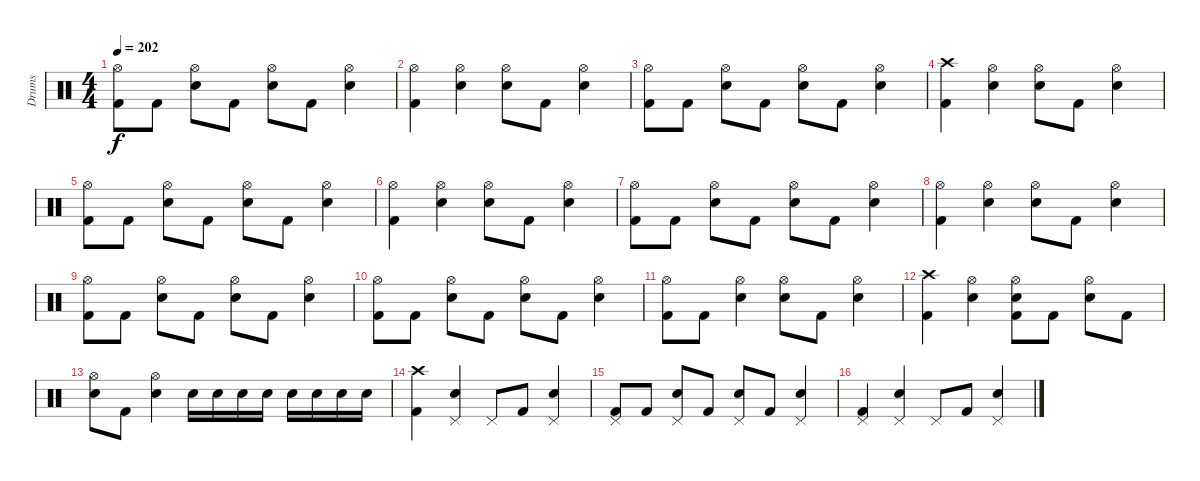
\track ("Drums" "Drums") {instrument percussion}
\staff {score}
\articulation defaults
\ts (4 4)
\tempo 202
\clef neutral
\ks c
("Hi-Hat (open)" "Kick (hit) 2").8{dy f} "Kick (hit) 2".8 ("Hi-Hat (open)" "Electric Snare (hit)").8 "Kick (hit) 2".8 ("Hi-Hat (open)" "Electric Snare (hit)").8 "Kick (hit) 2".8 ("Hi-Hat (open)" "Electric Snare (hit)").4 |
("Hi-Hat (open)" "Kick (hit) 2").4 ("Hi-Hat (open)" "Electric Snare (hit)").4 ("Hi-Hat (open)" "Electric Snare (hit)").8 "Kick (hit) 2".8 ("Hi-Hat (open)" "Electric Snare (hit)").4 |
("Hi-Hat (open)" "Kick (hit) 2").8 "Kick (hit) 2".8 ("Hi-Hat (open)" "Electric Snare (hit)").8 "Kick (hit) 2".8 ("Hi-Hat (open)" "Electric Snare (hit)").8 "Kick (hit) 2".8 ("Hi-Hat (open)" "Electric Snare (hit)").4 |
("Crash high (hit)" "Kick (hit) 2").4 ("Hi-Hat (open)" "Electric Snare (hit)").4 ("Hi-Hat (open)" "Electric Snare (hit)").8 "Kick (hit) 2".8 ("Hi-Hat (open)" "Electric Snare (hit)").4 |
("Hi-Hat (open)" "Kick (hit) 2").8 "Kick (hit) 2".8 ("Hi-Hat (open)" "Electric Snare (hit)").8 "Kick (hit) 2".8 ("Hi-Hat (open)" "Electric Snare (hit)").8 "Kick (hit) 2".8 ("Hi-Hat (open)" "Electric Snare (hit)").4 |
("Hi-Hat (open)" "Kick (hit) 2").4 ("Hi-Hat (open)" "Electric Snare (hit)").4 ("Hi-Hat (open)" "Electric Snare (hit)").8 "Kick (hit) 2".8 ("Hi-Hat (open)" "Electric Snare (hit)").4 |
("Hi-Hat (open)" "Kick (hit) 2").8 "Kick (hit) 2".8 ("Hi-Hat (open)" "Electric Snare (hit)").8 "Kick (hit) 2".8 ("Hi-Hat (open)" "Electric Snare (hit)").8 "Kick (hit) 2".8 ("Hi-Hat (open)" "Electric Snare (hit)").4 |
("Hi-Hat (open)" "Kick (hit) 2").4 ("Hi-Hat (open)" "Electric Snare (hit)").4 ("Hi-Hat (open)" "Electric Snare (hit)").8 "Kick (hit) 2".8 ("Hi-Hat (open)" "Electric Snare (hit)").4 |
("Hi-Hat (open)" "Kick (hit) 2").8 "Kick (hit) 2".8 ("Hi-Hat (open)" "Electric Snare (hit)").8 "Kick (hit) 2".8 ("Hi-Hat (open)" "Electric Snare (hit)").8 "Kick (hit) 2".8 ("Hi-Hat (open)" "Electric Snare (hit)").4 |
("Hi-Hat (open)" "Kick (hit) 2").8 "Kick (hit) 2".8 ("Hi-Hat (open)" "Electric Snare (hit)").8 "Kick (hit) 2".8 ("Hi-Hat (open)" "Electric Snare (hit)").8 "Kick (hit) 2".8 ("Hi-Hat (open)" "Electric Snare (hit)").4 |
("Hi-Hat (open)" "Kick (hit) 2").8 "Kick (hit) 2".8 ("Hi-Hat (open)" "Electric Snare (hit)").4 ("Hi-Hat (open)" "Electric Snare (hit)").8 "Kick (hit) 2".8 ("Hi-Hat (open)" "Electric Snare (hit)").4 |
("Crash high (hit)" "Kick (hit) 2").4 ("Hi-Hat (open)" "Electric Snare (hit)").4 ("Hi-Hat (open)" "Electric Snare (hit)" "Kick (hit) 2").8 "Kick (hit) 2".8 ("Hi-Hat (open)" "Electric Snare (hit)").8 "Kick (hit) 2".8 |
("Hi-Hat (open)" "Electric Snare (hit)").8 "Kick (hit) 2".8 ("Hi-Hat (open)" "Electric Snare (hit)").4 "Electric Snare (hit)".16 "Electric Snare (hit)".16 "Electric Snare (hit)".16 "Electric Snare (hit)".16 "Electric Snare (hit)".16 "Electric Snare (hit)".16 "Electric Snare (hit)".16 "Electric Snare (hit)".16 |
("Crash high (hit)" "Kick (hit) 2").4 ("Pedal Hi-Hat (hit)" "Electric Snare (hit)").4 "Pedal Hi-Hat (hit)".8 "Kick (hit) 2".8 ("Pedal Hi-Hat (hit)" "Electric Snare (hit)").4 |
("Pedal Hi-Hat (hit)" "Kick (hit) 2").8 "Kick (hit) 2".8 ("Pedal Hi-Hat (hit)" "Electric Snare (hit)").8 "Kick (hit) 2".8 ("Pedal Hi-Hat (hit)" "Electric Snare (hit)").8 "Kick (hit) 2".8 ("Pedal Hi-Hat (hit)" "Electric Snare (hit)").4 |
("Pedal Hi-Hat (hit)" "Kick (hit) 2").4 ("Pedal Hi-Hat (hit)" "Electric Snare (hit)").4 "Pedal Hi-Hat (hit)".8 "Kick (hit) 2".8 ("Pedal Hi-Hat (hit)" "Electric Snare (hit)").4
